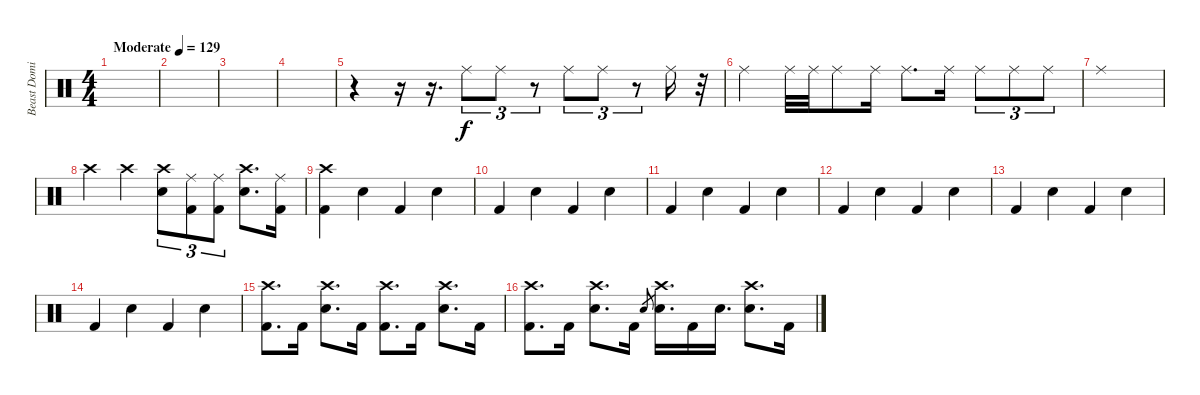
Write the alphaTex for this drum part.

\track ("Beast Dominator" "Beast Domi") {instrument percussion}
\staff
\articulation defaults
\ts (4 4)
\tempo (129 "Moderate")
\clef neutral
\ks c
|
|
|
|
r.4{volume 9} r.16 r.16{d} "Ride (middle)".8{tu (3 2)} "Ride (middle)".8{tu (3 2)} r.8{tu (3 2)} "Ride (middle)".8{tu (3 2)} "Ride (middle)".8{tu (3 2)} r.8{tu (3 2)} "Ride (middle)".16 r.32 |
"Ride (middle)".4 "Ride (middle)".32 "Ride (middle)".32 "Ride (middle)".8 "Ride (middle)".16 "Ride (middle)".8{d} "Ride (middle)".16 "Ride (middle)".8{tu (3 2)} "Ride (middle)".8{tu (3 2)} "Ride (middle)".8{tu (3 2)} |
"Ride (middle)".1 |
"Crash high (hit)".4{volume 13} "Crash high (hit)".4 ("Crash high (hit)" "Snare (hit) 2").8{tu (3 2)} ("Ride (middle)" "Kick (hit) 2").8{tu (3 2)} ("Ride (middle)" "Kick (hit) 2").8{tu (3 2)} ("Crash high (hit)" "Snare (hit) 2").8{d} ("Ride (middle)" "Kick (hit) 2").16 |
("Crash high (hit)" "Kick (hit) 2").4 "Snare (hit) 2".4 "Kick (hit) 2".4 "Snare (hit) 2".4 |
"Kick (hit) 2".4 "Snare (hit) 2".4 "Kick (hit) 2".4 "Electric Snare (hit)".4 |
"Kick (hit) 2".4 "Snare (hit) 2".4 "Kick (hit) 2".4 "Snare (hit) 2".4 |
"Kick (hit) 2".4 "Snare (hit) 2".4 "Kick (hit) 2".4 "Electric Snare (hit)".4 |
"Kick (hit) 2".4 "Snare (hit) 2".4 "Kick (hit) 2".4 "Snare (hit) 2".4 |
"Kick (hit) 2".4 "Snare (hit) 2".4 "Kick (hit) 2".4 "Electric Snare (hit)".4 |
("Crash high (hit)" "Kick (hit) 2").8{d} "Kick (hit) 2".16 ("Crash high (hit)" "Snare (hit) 2").8{d} "Kick (hit) 2".16 ("Crash high (hit)" "Kick (hit) 2").8{d} "Kick (hit) 2".16 ("Crash high (hit)" "Snare (hit) 2").8{d} "Kick (hit) 2".16 |
("Crash high (hit)" "Kick (hit) 2").8{d} "Kick (hit) 2".16 ("Crash high (hit)" "Snare (hit) 2").8{d} "Kick (hit) 2".16 "Snare (hit) 2".8{gr} ("Crash high (hit)" "Snare (hit) 2").16{d} "Kick (hit) 2".16 "Snare (hit) 2".16{d} ("Crash high (hit)" "Snare (hit) 2").8{d} "Kick (hit) 2".16
